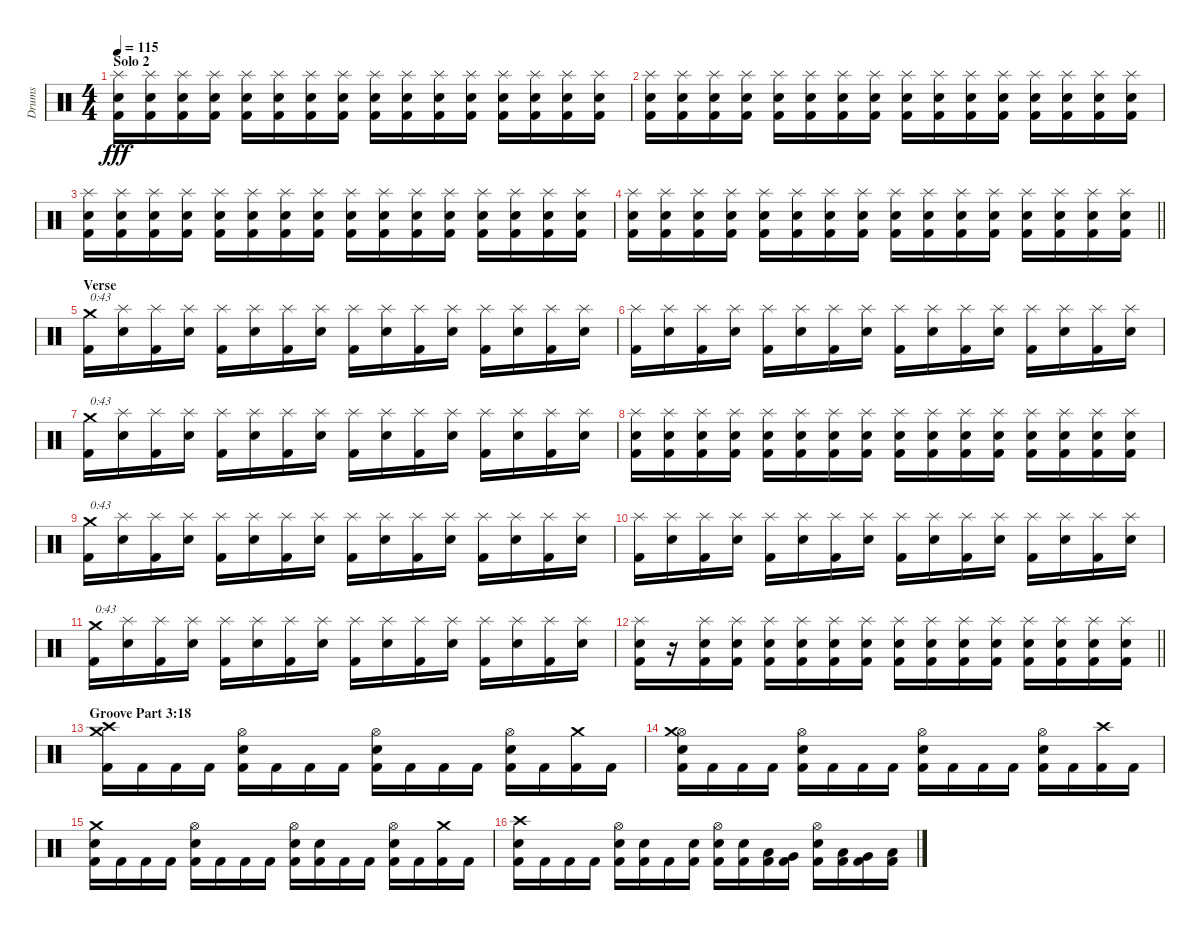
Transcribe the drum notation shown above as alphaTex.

\track ("Drums" "Drums") {instrument percussion}
\staff {score}
\articulation defaults
\ts (4 4)
\section ("" "Solo 2")
\tempo 115
\clef neutral
\ks c
("Kick (hit) 2" "Electric Snare (hit)" "Splash (hit)").16{dy fff} ("Kick (hit) 2" "Electric Snare (hit)" "Splash (hit)").16 ("Kick (hit) 2" "Electric Snare (hit)" "Splash (hit)").16 ("Kick (hit) 2" "Electric Snare (hit)" "Splash (hit)").16 ("Kick (hit) 2" "Electric Snare (hit)" "Splash (hit)").16 ("Kick (hit) 2" "Electric Snare (hit)" "Splash (hit)").16 ("Kick (hit) 2" "Electric Snare (hit)" "Splash (hit)").16 ("Kick (hit) 2" "Electric Snare (hit)" "Splash (hit)").16 ("Kick (hit) 2" "Electric Snare (hit)" "Splash (hit)").16 ("Kick (hit) 2" "Electric Snare (hit)" "Splash (hit)").16 ("Kick (hit) 2" "Electric Snare (hit)" "Splash (hit)").16 ("Kick (hit) 2" "Electric Snare (hit)" "Splash (hit)").16 ("Kick (hit) 2" "Electric Snare (hit)" "Splash (hit)").16 ("Kick (hit) 2" "Electric Snare (hit)" "Splash (hit)").16 ("Kick (hit) 2" "Electric Snare (hit)" "Splash (hit)").16 ("Kick (hit) 2" "Electric Snare (hit)" "Splash (hit)").16 |
("Kick (hit) 2" "Electric Snare (hit)" "Splash (hit)").16 ("Kick (hit) 2" "Electric Snare (hit)" "Splash (hit)").16 ("Kick (hit) 2" "Electric Snare (hit)" "Splash (hit)").16 ("Kick (hit) 2" "Electric Snare (hit)" "Splash (hit)").16 ("Kick (hit) 2" "Electric Snare (hit)" "Splash (hit)").16 ("Kick (hit) 2" "Electric Snare (hit)" "Splash (hit)").16 ("Kick (hit) 2" "Electric Snare (hit)" "Splash (hit)").16 ("Kick (hit) 2" "Electric Snare (hit)" "Splash (hit)").16 ("Kick (hit) 2" "Electric Snare (hit)" "Splash (hit)").16 ("Kick (hit) 2" "Electric Snare (hit)" "Splash (hit)").16 ("Kick (hit) 2" "Electric Snare (hit)" "Splash (hit)").16 ("Kick (hit) 2" "Electric Snare (hit)" "Splash (hit)").16 ("Kick (hit) 2" "Electric Snare (hit)" "Splash (hit)").16 ("Kick (hit) 2" "Electric Snare (hit)" "Splash (hit)").16 ("Kick (hit) 2" "Electric Snare (hit)" "Splash (hit)").16 ("Kick (hit) 2" "Electric Snare (hit)" "Splash (hit)").16 |
("Kick (hit) 2" "Electric Snare (hit)" "Splash (hit)").16 ("Kick (hit) 2" "Electric Snare (hit)" "Splash (hit)").16 ("Kick (hit) 2" "Electric Snare (hit)" "Splash (hit)").16 ("Kick (hit) 2" "Electric Snare (hit)" "Splash (hit)").16 ("Kick (hit) 2" "Electric Snare (hit)" "Splash (hit)").16 ("Kick (hit) 2" "Electric Snare (hit)" "Splash (hit)").16 ("Kick (hit) 2" "Electric Snare (hit)" "Splash (hit)").16 ("Kick (hit) 2" "Electric Snare (hit)" "Splash (hit)").16 ("Kick (hit) 2" "Electric Snare (hit)" "Splash (hit)").16 ("Kick (hit) 2" "Electric Snare (hit)" "Splash (hit)").16 ("Kick (hit) 2" "Electric Snare (hit)" "Splash (hit)").16 ("Kick (hit) 2" "Electric Snare (hit)" "Splash (hit)").16 ("Kick (hit) 2" "Electric Snare (hit)" "Splash (hit)").16 ("Kick (hit) 2" "Electric Snare (hit)" "Splash (hit)").16 ("Kick (hit) 2" "Electric Snare (hit)" "Splash (hit)").16 ("Kick (hit) 2" "Electric Snare (hit)" "Splash (hit)").16 |
\barLineRight lightlight
("Kick (hit) 2" "Electric Snare (hit)" "Splash (hit)").16 ("Kick (hit) 2" "Electric Snare (hit)" "Splash (hit)").16 ("Kick (hit) 2" "Electric Snare (hit)" "Splash (hit)").16 ("Kick (hit) 2" "Electric Snare (hit)" "Splash (hit)").16 ("Kick (hit) 2" "Electric Snare (hit)" "Splash (hit)").16 ("Kick (hit) 2" "Electric Snare (hit)" "Splash (hit)").16 ("Kick (hit) 2" "Electric Snare (hit)" "Splash (hit)").16 ("Kick (hit) 2" "Electric Snare (hit)" "Splash (hit)").16 ("Kick (hit) 2" "Electric Snare (hit)" "Splash (hit)").16 ("Kick (hit) 2" "Electric Snare (hit)" "Splash (hit)").16 ("Kick (hit) 2" "Electric Snare (hit)" "Splash (hit)").16 ("Kick (hit) 2" "Electric Snare (hit)" "Splash (hit)").16 ("Kick (hit) 2" "Electric Snare (hit)" "Splash (hit)").16 ("Kick (hit) 2" "Electric Snare (hit)" "Splash (hit)").16 ("Kick (hit) 2" "Electric Snare (hit)" "Splash (hit)").16 ("Kick (hit) 2" "Electric Snare (hit)" "Splash (hit)").16 |
\section ("" "Verse")
("Kick (hit) 2" "Crash medium (hit)").16{txt "0:43"} ("Electric Snare (hit)" "Splash (hit)").16 ("Kick (hit) 2" "Splash (hit)").16 ("Electric Snare (hit)" "Splash (hit)").16 ("Kick (hit) 2" "Splash (hit)").16 ("Electric Snare (hit)" "Splash (hit)").16 ("Kick (hit) 2" "Splash (hit)").16 ("Electric Snare (hit)" "Splash (hit)").16 ("Kick (hit) 2" "Splash (hit)").16 ("Electric Snare (hit)" "Splash (hit)").16 ("Kick (hit) 2" "Splash (hit)").16 ("Electric Snare (hit)" "Splash (hit)").16 ("Kick (hit) 2" "Splash (hit)").16 ("Electric Snare (hit)" "Splash (hit)").16 ("Kick (hit) 2" "Splash (hit)").16 ("Electric Snare (hit)" "Splash (hit)").16 |
("Kick (hit) 2" "Splash (hit)").16 ("Electric Snare (hit)" "Splash (hit)").16 ("Kick (hit) 2" "Splash (hit)").16 ("Electric Snare (hit)" "Splash (hit)").16 ("Kick (hit) 2" "Splash (hit)").16 ("Electric Snare (hit)" "Splash (hit)").16 ("Kick (hit) 2" "Splash (hit)").16 ("Electric Snare (hit)" "Splash (hit)").16 ("Kick (hit) 2" "Splash (hit)").16 ("Electric Snare (hit)" "Splash (hit)").16 ("Kick (hit) 2" "Splash (hit)").16 ("Electric Snare (hit)" "Splash (hit)").16 ("Kick (hit) 2" "Splash (hit)").16 ("Electric Snare (hit)" "Splash (hit)").16 ("Kick (hit) 2" "Splash (hit)").16 ("Electric Snare (hit)" "Splash (hit)").16 |
("Kick (hit) 2" "Crash medium (hit)").16{txt "0:43"} ("Electric Snare (hit)" "Splash (hit)").16 ("Kick (hit) 2" "Splash (hit)").16 ("Electric Snare (hit)" "Splash (hit)").16 ("Kick (hit) 2" "Splash (hit)").16 ("Electric Snare (hit)" "Splash (hit)").16 ("Kick (hit) 2" "Splash (hit)").16 ("Electric Snare (hit)" "Splash (hit)").16 ("Kick (hit) 2" "Splash (hit)").16 ("Electric Snare (hit)" "Splash (hit)").16 ("Kick (hit) 2" "Splash (hit)").16 ("Electric Snare (hit)" "Splash (hit)").16 ("Kick (hit) 2" "Splash (hit)").16 ("Electric Snare (hit)" "Splash (hit)").16 ("Kick (hit) 2" "Splash (hit)").16 ("Electric Snare (hit)" "Splash (hit)").16 |
("Kick (hit) 2" "Electric Snare (hit)" "Splash (hit)").16 ("Kick (hit) 2" "Electric Snare (hit)" "Splash (hit)").16 ("Kick (hit) 2" "Electric Snare (hit)" "Splash (hit)").16 ("Kick (hit) 2" "Electric Snare (hit)" "Splash (hit)").16 ("Kick (hit) 2" "Electric Snare (hit)" "Splash (hit)").16 ("Kick (hit) 2" "Electric Snare (hit)" "Splash (hit)").16 ("Kick (hit) 2" "Electric Snare (hit)" "Splash (hit)").16 ("Kick (hit) 2" "Electric Snare (hit)" "Splash (hit)").16 ("Kick (hit) 2" "Electric Snare (hit)" "Splash (hit)").16 ("Kick (hit) 2" "Electric Snare (hit)" "Splash (hit)").16 ("Kick (hit) 2" "Electric Snare (hit)" "Splash (hit)").16 ("Kick (hit) 2" "Electric Snare (hit)" "Splash (hit)").16 ("Kick (hit) 2" "Electric Snare (hit)" "Splash (hit)").16 ("Kick (hit) 2" "Electric Snare (hit)" "Splash (hit)").16 ("Kick (hit) 2" "Electric Snare (hit)" "Splash (hit)").16 ("Kick (hit) 2" "Electric Snare (hit)" "Splash (hit)").16 |
("Kick (hit) 2" "Crash medium (hit)").16{txt "0:43"} ("Electric Snare (hit)" "Splash (hit)").16 ("Kick (hit) 2" "Splash (hit)").16 ("Electric Snare (hit)" "Splash (hit)").16 ("Kick (hit) 2" "Splash (hit)").16 ("Electric Snare (hit)" "Splash (hit)").16 ("Kick (hit) 2" "Splash (hit)").16 ("Electric Snare (hit)" "Splash (hit)").16 ("Kick (hit) 2" "Splash (hit)").16 ("Electric Snare (hit)" "Splash (hit)").16 ("Kick (hit) 2" "Splash (hit)").16 ("Electric Snare (hit)" "Splash (hit)").16 ("Kick (hit) 2" "Splash (hit)").16 ("Electric Snare (hit)" "Splash (hit)").16 ("Kick (hit) 2" "Splash (hit)").16 ("Electric Snare (hit)" "Splash (hit)").16 |
("Kick (hit) 2" "Splash (hit)").16 ("Electric Snare (hit)" "Splash (hit)").16 ("Kick (hit) 2" "Splash (hit)").16 ("Electric Snare (hit)" "Splash (hit)").16 ("Kick (hit) 2" "Splash (hit)").16 ("Electric Snare (hit)" "Splash (hit)").16 ("Kick (hit) 2" "Splash (hit)").16 ("Electric Snare (hit)" "Splash (hit)").16 ("Kick (hit) 2" "Splash (hit)").16 ("Electric Snare (hit)" "Splash (hit)").16 ("Kick (hit) 2" "Splash (hit)").16 ("Electric Snare (hit)" "Splash (hit)").16 ("Kick (hit) 2" "Splash (hit)").16 ("Electric Snare (hit)" "Splash (hit)").16 ("Kick (hit) 2" "Splash (hit)").16 ("Electric Snare (hit)" "Splash (hit)").16 |
("Kick (hit) 2" "Crash medium (hit)").16{txt "0:43"} ("Electric Snare (hit)" "Splash (hit)").16 ("Kick (hit) 2" "Splash (hit)").16 ("Electric Snare (hit)" "Splash (hit)").16 ("Kick (hit) 2" "Splash (hit)").16 ("Electric Snare (hit)" "Splash (hit)").16 ("Kick (hit) 2" "Splash (hit)").16 ("Electric Snare (hit)" "Splash (hit)").16 ("Kick (hit) 2" "Splash (hit)").16 ("Electric Snare (hit)" "Splash (hit)").16 ("Kick (hit) 2" "Splash (hit)").16 ("Electric Snare (hit)" "Splash (hit)").16 ("Kick (hit) 2" "Splash (hit)").16 ("Electric Snare (hit)" "Splash (hit)").16 ("Kick (hit) 2" "Splash (hit)").16 ("Electric Snare (hit)" "Splash (hit)").16 |
\barLineRight lightlight
("Kick (hit) 2" "Electric Snare (hit)" "Splash (hit)").16 r.16 ("Kick (hit) 2" "Electric Snare (hit)" "Splash (hit)").16 ("Kick (hit) 2" "Electric Snare (hit)" "Splash (hit)").16 ("Kick (hit) 2" "Electric Snare (hit)" "Splash (hit)").16 ("Kick (hit) 2" "Electric Snare (hit)" "Splash (hit)").16 ("Kick (hit) 2" "Electric Snare (hit)" "Splash (hit)").16 ("Kick (hit) 2" "Electric Snare (hit)" "Splash (hit)").16 ("Kick (hit) 2" "Electric Snare (hit)" "Splash (hit)").16 ("Kick (hit) 2" "Electric Snare (hit)" "Splash (hit)").16 ("Kick (hit) 2" "Electric Snare (hit)" "Splash (hit)").16 ("Kick (hit) 2" "Electric Snare (hit)" "Splash (hit)").16 ("Kick (hit) 2" "Electric Snare (hit)" "Splash (hit)").16 ("Kick (hit) 2" "Electric Snare (hit)" "Splash (hit)").16 ("Kick (hit) 2" "Electric Snare (hit)" "Splash (hit)").16 ("Kick (hit) 2" "Electric Snare (hit)" "Splash (hit)").16 |
\section ("" "Groove Part 3:18")
("Kick (hit) 2" "Crash medium (hit)" "Crash high (hit)").16 "Kick (hit) 2".16 "Kick (hit) 2".16 "Kick (hit) 2".16 ("Kick (hit) 2" "Electric Snare (hit)" "Hi-Hat (open)").16 "Kick (hit) 2".16 "Kick (hit) 2".16 "Kick (hit) 2".16 ("Kick (hit) 2" "Electric Snare (hit)" "Hi-Hat (open)").16 "Kick (hit) 2".16 "Kick (hit) 2".16 "Kick (hit) 2".16 ("Kick (hit) 2" "Electric Snare (hit)" "Hi-Hat (open)").16 "Kick (hit) 2".16 ("Kick (hit) 2" "Crash medium (hit)").16 "Kick (hit) 2".16 |
("Kick (hit) 2" "Electric Snare (hit)" "Hi-Hat (open)" "Crash medium (hit)").16 "Kick (hit) 2".16 "Kick (hit) 2".16 "Kick (hit) 2".16 ("Kick (hit) 2" "Electric Snare (hit)" "Hi-Hat (open)").16 "Kick (hit) 2".16 "Kick (hit) 2".16 "Kick (hit) 2".16 ("Kick (hit) 2" "Electric Snare (hit)" "Hi-Hat (open)").16 "Kick (hit) 2".16 "Kick (hit) 2".16 "Kick (hit) 2".16 ("Kick (hit) 2" "Electric Snare (hit)" "Hi-Hat (open)").16 "Kick (hit) 2".16 ("Kick (hit) 2" "Crash high (hit)").16 "Kick (hit) 2".16 |
("Kick (hit) 2" "Electric Snare (hit)" "Crash medium (hit)").16 "Kick (hit) 2".16 "Kick (hit) 2".16 "Kick (hit) 2".16 ("Kick (hit) 2" "Electric Snare (hit)" "Hi-Hat (open)").16 "Kick (hit) 2".16 "Kick (hit) 2".16 "Kick (hit) 2".16 ("Kick (hit) 2" "Electric Snare (hit)" "Hi-Hat (open)").16 ("Kick (hit) 2" "Electric Snare (hit)").16 "Kick (hit) 2".16 "Kick (hit) 2".16 ("Kick (hit) 2" "Electric Snare (hit)" "Hi-Hat (open)").16 "Kick (hit) 2".16 ("Kick (hit) 2" "Crash medium (hit)").16 "Kick (hit) 2".16 |
("Kick (hit) 2" "Electric Snare (hit)" "Crash high (hit)").16 "Kick (hit) 2".16 "Kick (hit) 2".16 "Kick (hit) 2".16 ("Kick (hit) 2" "Electric Snare (hit)" "Hi-Hat (open)").16 ("Kick (hit) 2" "Electric Snare (hit)").16 "Kick (hit) 2".16 ("Kick (hit) 2" "Electric Snare (hit)").16 ("Kick (hit) 2" "Electric Snare (hit)" "Hi-Hat (open)").16 ("Kick (hit) 2" "Electric Snare (hit)").16 ("Kick (hit) 2" "Low Tom (hit)").16 ("Kick (hit) 2" "Very Low Tom (hit)").16 ("Kick (hit) 2" "Electric Snare (hit)" "Hi-Hat (open)").16 ("Kick (hit) 2" "Low Tom (hit)").16 ("Kick (hit) 2" "Very Low Tom (hit)").16 ("Kick (hit) 2" "Low Floor Tom (hit)").16
